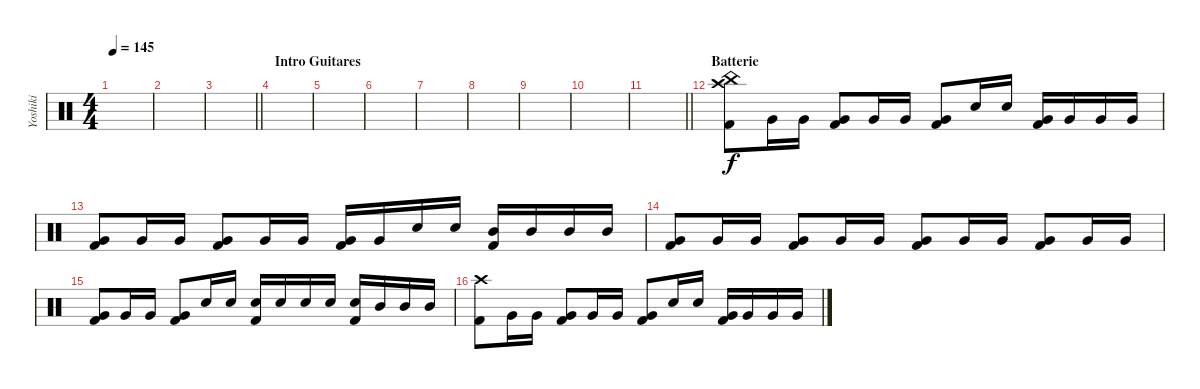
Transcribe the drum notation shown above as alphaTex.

\track ("Yoshiki" "Yoshiki") {instrument percussion}
\staff {score}
\articulation defaults
\ts (4 4)
\tempo 145
\clef neutral
\ks c
|
|
\barLineRight lightlight
|
\section ("" "Intro Guitares")
|
|
|
|
|
|
|
\barLineRight lightlight
|
\section ("" "Batterie")
("Crash high (hit)" "China (hit)" "Kick (hit) 2").8 "Very Low Tom (hit)".16 "Very Low Tom (hit)".16 ("Very Low Tom (hit)" "Kick (hit) 2").8 "Very Low Tom (hit)".16 "Very Low Tom (hit)".16 ("Very Low Tom (hit)" "Kick (hit) 2").8 "Snare (hit) 2".16 "Snare (hit) 2".16 ("Very Low Tom (hit)" "Kick (hit) 2").16 "Very Low Tom (hit)".16 "Very Low Tom (hit)".16 "Very Low Tom (hit)".16 |
("Very Low Tom (hit)" "Kick (hit) 2").8 "Very Low Tom (hit)".16 "Very Low Tom (hit)".16 ("Very Low Tom (hit)" "Kick (hit) 2").8 "Very Low Tom (hit)".16 "Very Low Tom (hit)".16 ("Very Low Tom (hit)" "Kick (hit) 2").16 "Very Low Tom (hit)".16 "Snare (hit) 2".16 "Snare (hit) 2".16 ("Mid Tom (hit)" "Kick (hit) 2").16 "Mid Tom (hit)".16 "Mid Tom (hit)".16 "Mid Tom (hit)".16 |
("Very Low Tom (hit)" "Kick (hit) 2").8 "Very Low Tom (hit)".16 "Very Low Tom (hit)".16 ("Very Low Tom (hit)" "Kick (hit) 2").8 "Very Low Tom (hit)".16 "Very Low Tom (hit)".16 ("Very Low Tom (hit)" "Kick (hit) 2").8 "Very Low Tom (hit)".16 "Very Low Tom (hit)".16 ("Very Low Tom (hit)" "Kick (hit) 2").8 "Very Low Tom (hit)".16 "Very Low Tom (hit)".16 |
("Very Low Tom (hit)" "Kick (hit) 2").8 "Very Low Tom (hit)".16 "Very Low Tom (hit)".16 ("Very Low Tom (hit)" "Kick (hit) 2").8 "Snare (hit) 2".16 "Snare (hit) 2".16 ("Snare (hit) 2" "Kick (hit) 2").16 "Snare (hit) 2".16 "Snare (hit) 2".16 "Snare (hit) 2".16 ("Snare (hit) 2" "Kick (hit) 2").16 "Mid Tom (hit)".16 "Mid Tom (hit)".16 "Mid Tom (hit)".16 |
("Crash high (hit)" "Kick (hit) 2").8 "Very Low Tom (hit)".16 "Very Low Tom (hit)".16 ("Very Low Tom (hit)" "Kick (hit) 2").8 "Very Low Tom (hit)".16 "Very Low Tom (hit)".16 ("Very Low Tom (hit)" "Kick (hit) 2").8 "Snare (hit) 2".16 "Snare (hit) 2".16 ("Very Low Tom (hit)" "Kick (hit) 2").16 "Very Low Tom (hit)".16 "Very Low Tom (hit)".16 "Very Low Tom (hit)".16
